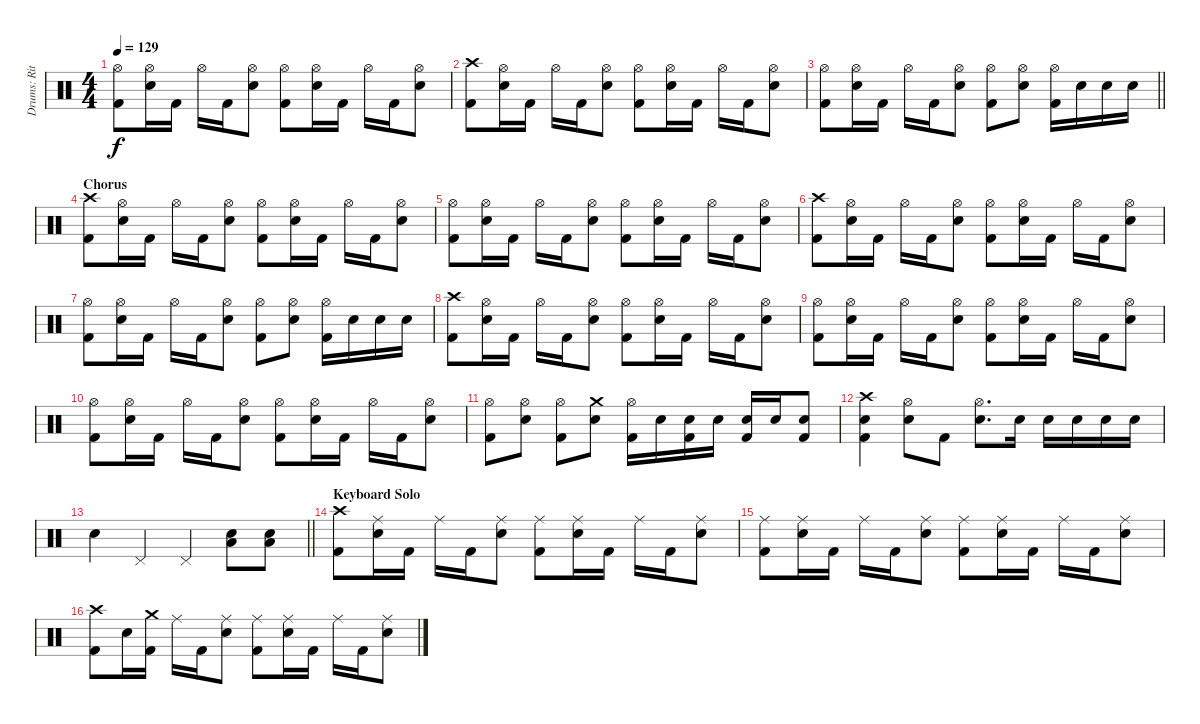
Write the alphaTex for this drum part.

\track ("Drums: Ritsu Tainaka" "Drums: Rit") {instrument percussion}
\staff {score}
\articulation defaults
\ts (4 4)
\tempo 129
\clef neutral
\ks c
("Hi-Hat (open)" "Kick (hit) 2").8{dy f} ("Hi-Hat (open)" "Electric Snare (hit)").16 "Kick (hit) 2".16 "Hi-Hat (open)".16 "Kick (hit) 2".16 ("Hi-Hat (open)" "Electric Snare (hit)").8 ("Hi-Hat (open)" "Kick (hit) 2").8 ("Hi-Hat (open)" "Electric Snare (hit)").16 "Kick (hit) 2".16 "Hi-Hat (open)".16 "Kick (hit) 2".16 ("Hi-Hat (open)" "Electric Snare (hit)").8 |
("Crash high (hit)" "Kick (hit) 2").8 ("Hi-Hat (open)" "Electric Snare (hit)").16 "Kick (hit) 2".16 "Hi-Hat (open)".16 "Kick (hit) 2".16 ("Hi-Hat (open)" "Electric Snare (hit)").8 ("Hi-Hat (open)" "Kick (hit) 2").8 ("Hi-Hat (open)" "Electric Snare (hit)").16 "Kick (hit) 2".16 "Hi-Hat (open)".16 "Kick (hit) 2".16 ("Hi-Hat (open)" "Electric Snare (hit)").8 |
\barLineRight lightlight
("Hi-Hat (open)" "Kick (hit) 2").8 ("Hi-Hat (open)" "Electric Snare (hit)").16 "Kick (hit) 2".16 "Hi-Hat (open)".16 "Kick (hit) 2".16 ("Hi-Hat (open)" "Electric Snare (hit)").8 ("Hi-Hat (open)" "Kick (hit) 2").8 ("Hi-Hat (open)" "Electric Snare (hit)").8 ("Hi-Hat (open)" "Kick (hit) 2").16 "Electric Snare (hit)".16 "Electric Snare (hit)".16 "Electric Snare (hit)".16 |
\section ("" "Chorus")
("Crash high (hit)" "Kick (hit) 2").8 ("Hi-Hat (open)" "Electric Snare (hit)").16 "Kick (hit) 2".16 "Hi-Hat (open)".16 "Kick (hit) 2".16 ("Hi-Hat (open)" "Electric Snare (hit)").8 ("Hi-Hat (open)" "Kick (hit) 2").8 ("Hi-Hat (open)" "Electric Snare (hit)").16 "Kick (hit) 2".16 "Hi-Hat (open)".16 "Kick (hit) 2".16 ("Hi-Hat (open)" "Electric Snare (hit)").8 |
("Hi-Hat (open)" "Kick (hit) 2").8 ("Hi-Hat (open)" "Electric Snare (hit)").16 "Kick (hit) 2".16 "Hi-Hat (open)".16 "Kick (hit) 2".16 ("Hi-Hat (open)" "Electric Snare (hit)").8 ("Hi-Hat (open)" "Kick (hit) 2").8 ("Hi-Hat (open)" "Electric Snare (hit)").16 "Kick (hit) 2".16 "Hi-Hat (open)".16 "Kick (hit) 2".16 ("Hi-Hat (open)" "Electric Snare (hit)").8 |
("Crash high (hit)" "Kick (hit) 2").8 ("Hi-Hat (open)" "Electric Snare (hit)").16 "Kick (hit) 2".16 "Hi-Hat (open)".16 "Kick (hit) 2".16 ("Hi-Hat (open)" "Electric Snare (hit)").8 ("Hi-Hat (open)" "Kick (hit) 2").8 ("Hi-Hat (open)" "Electric Snare (hit)").16 "Kick (hit) 2".16 "Hi-Hat (open)".16 "Kick (hit) 2".16 ("Hi-Hat (open)" "Electric Snare (hit)").8 |
("Hi-Hat (open)" "Kick (hit) 2").8 ("Hi-Hat (open)" "Electric Snare (hit)").16 "Kick (hit) 2".16 "Hi-Hat (open)".16 "Kick (hit) 2".16 ("Hi-Hat (open)" "Electric Snare (hit)").8 ("Hi-Hat (open)" "Kick (hit) 2").8 ("Hi-Hat (open)" "Electric Snare (hit)").8 ("Hi-Hat (open)" "Kick (hit) 2").16 "Electric Snare (hit)".16 "Electric Snare (hit)".16 "Electric Snare (hit)".16 |
("Crash high (hit)" "Kick (hit) 2").8 ("Hi-Hat (open)" "Electric Snare (hit)").16 "Kick (hit) 2".16 "Hi-Hat (open)".16 "Kick (hit) 2".16 ("Hi-Hat (open)" "Electric Snare (hit)").8 ("Hi-Hat (open)" "Kick (hit) 2").8 ("Hi-Hat (open)" "Electric Snare (hit)").16 "Kick (hit) 2".16 "Hi-Hat (open)".16 "Kick (hit) 2".16 ("Hi-Hat (open)" "Electric Snare (hit)").8 |
("Hi-Hat (open)" "Kick (hit) 2").8 ("Hi-Hat (open)" "Electric Snare (hit)").16 "Kick (hit) 2".16 "Hi-Hat (open)".16 "Kick (hit) 2".16 ("Hi-Hat (open)" "Electric Snare (hit)").8 ("Hi-Hat (open)" "Kick (hit) 2").8 ("Hi-Hat (open)" "Electric Snare (hit)").16 "Kick (hit) 2".16 "Hi-Hat (open)".16 "Kick (hit) 2".16 ("Hi-Hat (open)" "Electric Snare (hit)").8 |
("Hi-Hat (open)" "Kick (hit) 2").8 ("Hi-Hat (open)" "Electric Snare (hit)").16 "Kick (hit) 2".16 "Hi-Hat (open)".16 "Kick (hit) 2".16 ("Hi-Hat (open)" "Electric Snare (hit)").8 ("Hi-Hat (open)" "Kick (hit) 2").8 ("Hi-Hat (open)" "Electric Snare (hit)").16 "Kick (hit) 2".16 "Hi-Hat (open)".16 "Kick (hit) 2".16 ("Hi-Hat (open)" "Electric Snare (hit)").8 |
("Hi-Hat (open)" "Kick (hit) 2").8 ("Hi-Hat (open)" "Electric Snare (hit)").8 ("Hi-Hat (open)" "Kick (hit) 2").8 ("Crash medium (hit)" "Electric Snare (hit)").8 ("Hi-Hat (open)" "Kick (hit) 2").16 "Electric Snare (hit)".16 ("Electric Snare (hit)" "Kick (hit) 2").16 "Electric Snare (hit)".16 ("Electric Snare (hit)" "Kick (hit) 2").16 "Electric Snare (hit)".16 ("Electric Snare (hit)" "Kick (hit) 2").8 |
("Crash high (hit)" "Electric Snare (hit)" "Kick (hit) 2").4 ("Hi-Hat (open)" "Electric Snare (hit)").8 "Kick (hit) 2".8 ("Hi-Hat (open)" "Electric Snare (hit)").8{d} "Electric Snare (hit)".16 "Electric Snare (hit)".16 "Electric Snare (hit)".16 "Electric Snare (hit)".16 "Electric Snare (hit)".16 |
\barLineRight lightlight "Electric Snare (hit)".4 "Pedal Hi-Hat (hit)".4 "Pedal Hi-Hat (hit)".4
("Electric Snare (hit)" "Low Floor Tom (hit)").8 ("Electric Snare (hit)" "Low Floor Tom (hit)").8 |
\section ("" "Keyboard Solo")
("Crash high (hit)" "Kick (hit) 2").8 ("Ride (middle)" "Electric Snare (hit)").16 "Kick (hit) 2".16 "Ride (middle)".16 "Kick (hit) 2".16 ("Ride (middle)" "Electric Snare (hit)").8 ("Ride (middle)" "Kick (hit) 2").8 ("Ride (middle)" "Electric Snare (hit)").16 "Kick (hit) 2".16 "Ride (middle)".16 "Kick (hit) 2".16 ("Ride (middle)" "Electric Snare (hit)").8 |
("Ride (middle)" "Kick (hit) 2").8 ("Ride (middle)" "Electric Snare (hit)").16 "Kick (hit) 2".16 "Ride (middle)".16 "Kick (hit) 2".16 ("Ride (middle)" "Electric Snare (hit)").8 ("Ride (middle)" "Kick (hit) 2").8 ("Ride (middle)" "Electric Snare (hit)").16 "Kick (hit) 2".16 "Ride (middle)".16 "Kick (hit) 2".16 ("Ride (middle)" "Electric Snare (hit)").8 |
("Crash high (hit)" "Kick (hit) 2").8 "Electric Snare (hit)".16 ("Crash medium (hit)" "Kick (hit) 2").16 "Ride (middle)".16 "Kick (hit) 2".16 ("Ride (middle)" "Electric Snare (hit)").8 ("Ride (middle)" "Kick (hit) 2").8 ("Ride (middle)" "Electric Snare (hit)").16 "Kick (hit) 2".16 "Ride (middle)".16 "Kick (hit) 2".16 ("Ride (middle)" "Electric Snare (hit)").8
